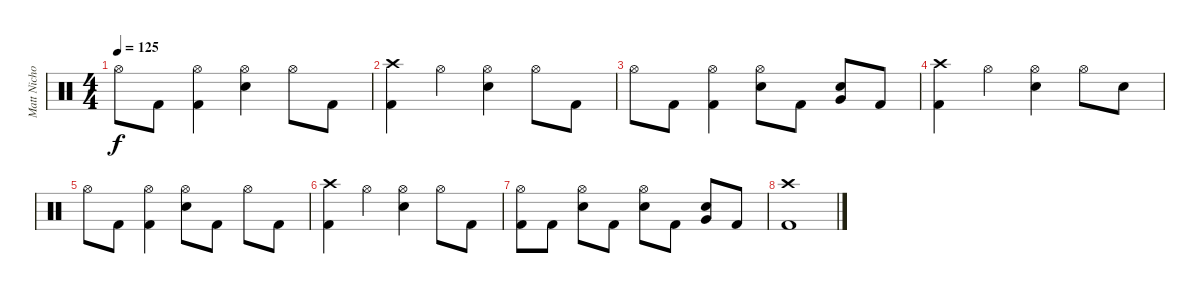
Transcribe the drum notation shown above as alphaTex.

\track ("Matt Nicholls" "Matt Nicho") {instrument percussion}
\staff {score}
\articulation defaults
\ts (4 4)
\tempo 125
\clef neutral
\ks c "Hi-Hat (open)".8{dy f} "Kick (hit) 2".8
("Hi-Hat (open)" "Kick (hit) 2").4 ("Hi-Hat (open)" "Electric Snare (hit)").4 "Hi-Hat (open)".8 "Kick (hit) 2".8 |
("Crash high (hit)" "Kick (hit) 2").4 "Hi-Hat (open)".4 ("Hi-Hat (open)" "Electric Snare (hit)").4 "Hi-Hat (open)".8 "Kick (hit) 2".8 |
"Hi-Hat (open)".8 "Kick (hit) 2".8 ("Hi-Hat (open)" "Kick (hit) 2").4 ("Hi-Hat (open)" "Electric Snare (hit)").8 "Kick (hit) 2".8 ("Electric Snare (hit)" "Very Low Tom (hit)").8 "Kick (hit) 2".8 |
("Crash high (hit)" "Kick (hit) 2").4 "Hi-Hat (open)".4 ("Hi-Hat (open)" "Electric Snare (hit)").4 "Hi-Hat (open)".8 "Electric Snare (hit)".8 |
"Hi-Hat (open)".8 "Kick (hit) 2".8 ("Hi-Hat (open)" "Kick (hit) 2").4 ("Hi-Hat (open)" "Electric Snare (hit)").8 "Kick (hit) 2".8 "Hi-Hat (open)".8 "Kick (hit) 2".8 |
("Crash high (hit)" "Kick (hit) 2").4 "Hi-Hat (open)".4 ("Hi-Hat (open)" "Electric Snare (hit)").4 "Hi-Hat (open)".8 "Kick (hit) 2".8 |
("Hi-Hat (open)" "Kick (hit) 2").8 "Kick (hit) 2".8 ("Hi-Hat (open)" "Electric Snare (hit)").8 "Kick (hit) 2".8 ("Hi-Hat (open)" "Electric Snare (hit)").8 "Kick (hit) 2".8 ("Electric Snare (hit)" "Very Low Tom (hit)").8 "Kick (hit) 2".8 |
("Crash high (hit)" "Kick (hit) 2").1
